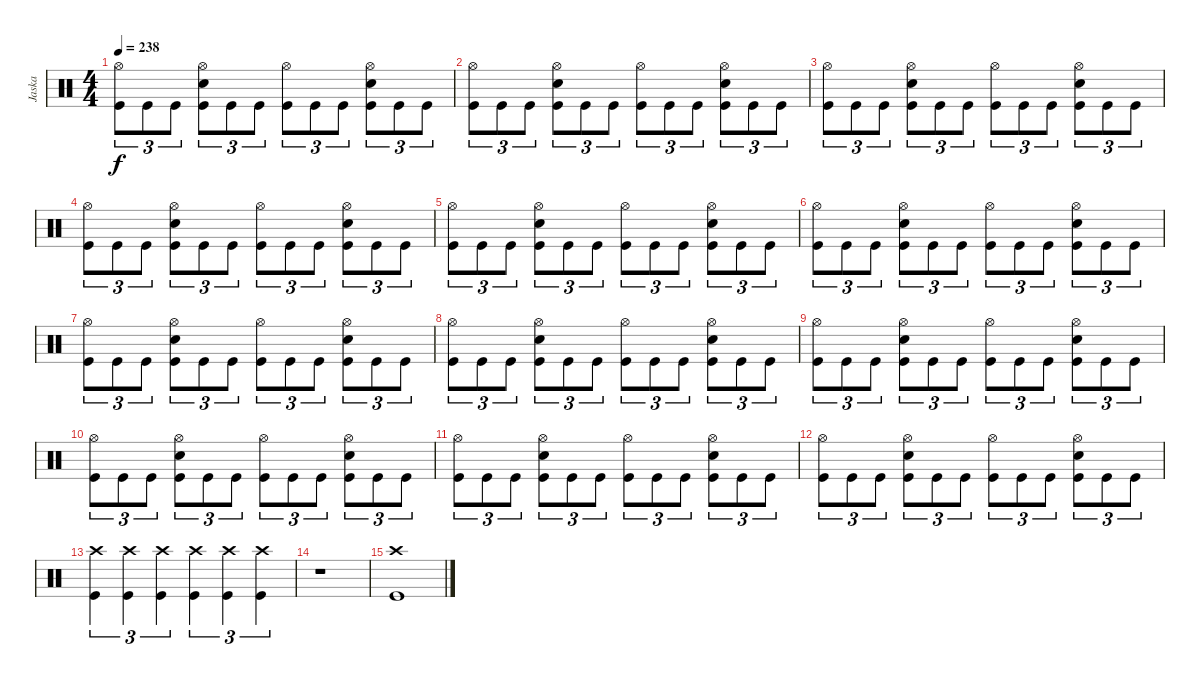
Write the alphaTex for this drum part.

\track ("Jaska" "Jaska") {instrument percussion}
\staff {score}
\articulation defaults
\ts (4 4)
\tempo 238
\clef neutral
\ks c
("Hi-Hat (open)" "Kick (hit)").8{tu (3 2) dy f} "Kick (hit)".8{tu (3 2)} "Kick (hit)".8{tu (3 2)} ("Hi-Hat (open)" "Snare (hit) 2" "Kick (hit)").8{tu (3 2)} "Kick (hit)".8{tu (3 2)} "Kick (hit)".8{tu (3 2)} ("Hi-Hat (open)" "Kick (hit)").8{tu (3 2)} "Kick (hit)".8{tu (3 2)} "Kick (hit)".8{tu (3 2)} ("Hi-Hat (open)" "Snare (hit) 2" "Kick (hit)").8{tu (3 2)} "Kick (hit)".8{tu (3 2)} "Kick (hit)".8{tu (3 2)} |
("Hi-Hat (open)" "Kick (hit)").8{tu (3 2)} "Kick (hit)".8{tu (3 2)} "Kick (hit)".8{tu (3 2)} ("Hi-Hat (open)" "Snare (hit) 2" "Kick (hit)").8{tu (3 2)} "Kick (hit)".8{tu (3 2)} "Kick (hit)".8{tu (3 2)} ("Hi-Hat (open)" "Kick (hit)").8{tu (3 2)} "Kick (hit)".8{tu (3 2)} "Kick (hit)".8{tu (3 2)} ("Hi-Hat (open)" "Snare (hit) 2" "Kick (hit)").8{tu (3 2)} "Kick (hit)".8{tu (3 2)} "Kick (hit)".8{tu (3 2)} |
("Hi-Hat (open)" "Kick (hit)").8{tu (3 2)} "Kick (hit)".8{tu (3 2)} "Kick (hit)".8{tu (3 2)} ("Hi-Hat (open)" "Snare (hit) 2" "Kick (hit)").8{tu (3 2)} "Kick (hit)".8{tu (3 2)} "Kick (hit)".8{tu (3 2)} ("Hi-Hat (open)" "Kick (hit)").8{tu (3 2)} "Kick (hit)".8{tu (3 2)} "Kick (hit)".8{tu (3 2)} ("Hi-Hat (open)" "Snare (hit) 2" "Kick (hit)").8{tu (3 2)} "Kick (hit)".8{tu (3 2)} "Kick (hit)".8{tu (3 2)} |
("Hi-Hat (open)" "Kick (hit)").8{tu (3 2)} "Kick (hit)".8{tu (3 2)} "Kick (hit)".8{tu (3 2)} ("Hi-Hat (open)" "Snare (hit) 2" "Kick (hit)").8{tu (3 2)} "Kick (hit)".8{tu (3 2)} "Kick (hit)".8{tu (3 2)} ("Hi-Hat (open)" "Kick (hit)").8{tu (3 2)} "Kick (hit)".8{tu (3 2)} "Kick (hit)".8{tu (3 2)} ("Hi-Hat (open)" "Snare (hit) 2" "Kick (hit)").8{tu (3 2)} "Kick (hit)".8{tu (3 2)} "Kick (hit)".8{tu (3 2)} |
("Hi-Hat (open)" "Kick (hit)").8{tu (3 2)} "Kick (hit)".8{tu (3 2)} "Kick (hit)".8{tu (3 2)} ("Hi-Hat (open)" "Snare (hit) 2" "Kick (hit)").8{tu (3 2)} "Kick (hit)".8{tu (3 2)} "Kick (hit)".8{tu (3 2)} ("Hi-Hat (open)" "Kick (hit)").8{tu (3 2)} "Kick (hit)".8{tu (3 2)} "Kick (hit)".8{tu (3 2)} ("Hi-Hat (open)" "Snare (hit) 2" "Kick (hit)").8{tu (3 2)} "Kick (hit)".8{tu (3 2)} "Kick (hit)".8{tu (3 2)} |
("Hi-Hat (open)" "Kick (hit)").8{tu (3 2)} "Kick (hit)".8{tu (3 2)} "Kick (hit)".8{tu (3 2)} ("Hi-Hat (open)" "Snare (hit) 2" "Kick (hit)").8{tu (3 2)} "Kick (hit)".8{tu (3 2)} "Kick (hit)".8{tu (3 2)} ("Hi-Hat (open)" "Kick (hit)").8{tu (3 2)} "Kick (hit)".8{tu (3 2)} "Kick (hit)".8{tu (3 2)} ("Hi-Hat (open)" "Snare (hit) 2" "Kick (hit)").8{tu (3 2)} "Kick (hit)".8{tu (3 2)} "Kick (hit)".8{tu (3 2)} |
("Hi-Hat (open)" "Kick (hit)").8{tu (3 2)} "Kick (hit)".8{tu (3 2)} "Kick (hit)".8{tu (3 2)} ("Hi-Hat (open)" "Snare (hit) 2" "Kick (hit)").8{tu (3 2)} "Kick (hit)".8{tu (3 2)} "Kick (hit)".8{tu (3 2)} ("Hi-Hat (open)" "Kick (hit)").8{tu (3 2)} "Kick (hit)".8{tu (3 2)} "Kick (hit)".8{tu (3 2)} ("Hi-Hat (open)" "Snare (hit) 2" "Kick (hit)").8{tu (3 2)} "Kick (hit)".8{tu (3 2)} "Kick (hit)".8{tu (3 2)} |
("Hi-Hat (open)" "Kick (hit)").8{tu (3 2)} "Kick (hit)".8{tu (3 2)} "Kick (hit)".8{tu (3 2)} ("Hi-Hat (open)" "Snare (hit) 2" "Kick (hit)").8{tu (3 2)} "Kick (hit)".8{tu (3 2)} "Kick (hit)".8{tu (3 2)} ("Hi-Hat (open)" "Kick (hit)").8{tu (3 2)} "Kick (hit)".8{tu (3 2)} "Kick (hit)".8{tu (3 2)} ("Hi-Hat (open)" "Snare (hit) 2" "Kick (hit)").8{tu (3 2)} "Kick (hit)".8{tu (3 2)} "Kick (hit)".8{tu (3 2)} |
("Hi-Hat (open)" "Kick (hit)").8{tu (3 2)} "Kick (hit)".8{tu (3 2)} "Kick (hit)".8{tu (3 2)} ("Hi-Hat (open)" "Snare (hit) 2" "Kick (hit)").8{tu (3 2)} "Kick (hit)".8{tu (3 2)} "Kick (hit)".8{tu (3 2)} ("Hi-Hat (open)" "Kick (hit)").8{tu (3 2)} "Kick (hit)".8{tu (3 2)} "Kick (hit)".8{tu (3 2)} ("Hi-Hat (open)" "Snare (hit) 2" "Kick (hit)").8{tu (3 2)} "Kick (hit)".8{tu (3 2)} "Kick (hit)".8{tu (3 2)} |
("Hi-Hat (open)" "Kick (hit)").8{tu (3 2)} "Kick (hit)".8{tu (3 2)} "Kick (hit)".8{tu (3 2)} ("Hi-Hat (open)" "Snare (hit) 2" "Kick (hit)").8{tu (3 2)} "Kick (hit)".8{tu (3 2)} "Kick (hit)".8{tu (3 2)} ("Hi-Hat (open)" "Kick (hit)").8{tu (3 2)} "Kick (hit)".8{tu (3 2)} "Kick (hit)".8{tu (3 2)} ("Hi-Hat (open)" "Snare (hit) 2" "Kick (hit)").8{tu (3 2)} "Kick (hit)".8{tu (3 2)} "Kick (hit)".8{tu (3 2)} |
("Hi-Hat (open)" "Kick (hit)").8{tu (3 2)} "Kick (hit)".8{tu (3 2)} "Kick (hit)".8{tu (3 2)} ("Hi-Hat (open)" "Snare (hit) 2" "Kick (hit)").8{tu (3 2)} "Kick (hit)".8{tu (3 2)} "Kick (hit)".8{tu (3 2)} ("Hi-Hat (open)" "Kick (hit)").8{tu (3 2)} "Kick (hit)".8{tu (3 2)} "Kick (hit)".8{tu (3 2)} ("Hi-Hat (open)" "Snare (hit) 2" "Kick (hit)").8{tu (3 2)} "Kick (hit)".8{tu (3 2)} "Kick (hit)".8{tu (3 2)} |
("Hi-Hat (open)" "Kick (hit)").8{tu (3 2)} "Kick (hit)".8{tu (3 2)} "Kick (hit)".8{tu (3 2)} ("Hi-Hat (open)" "Snare (hit) 2" "Kick (hit)").8{tu (3 2)} "Kick (hit)".8{tu (3 2)} "Kick (hit)".8{tu (3 2)} ("Hi-Hat (open)" "Kick (hit)").8{tu (3 2)} "Kick (hit)".8{tu (3 2)} "Kick (hit)".8{tu (3 2)} ("Hi-Hat (open)" "Snare (hit) 2" "Kick (hit)").8{tu (3 2)} "Kick (hit)".8{tu (3 2)} "Kick (hit)".8{tu (3 2)} |
("Crash high (hit)" "Kick (hit)").4{tu (3 2)} ("Crash high (hit)" "Kick (hit)").4{tu (3 2)} ("Crash high (hit)" "Kick (hit)").4{tu (3 2)} ("Crash high (hit)" "Kick (hit)").4{tu (3 2)} ("Crash high (hit)" "Kick (hit)").4{tu (3 2)} ("Crash high (hit)" "Kick (hit)").4{tu (3 2)} |
r.1 |
("Crash high (hit)" "Kick (hit)").1
